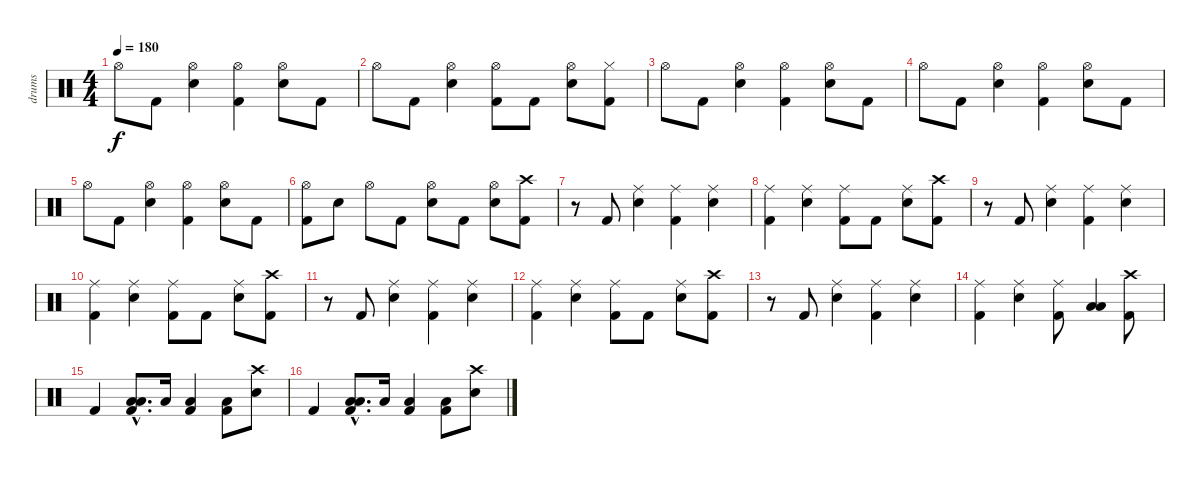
\track ("drums" "drums") {instrument percussion}
\staff {score}
\articulation defaults
\ts (4 4)
\tempo 180
\clef neutral
\ks c "Hi-Hat (open)".8{dy f} "Kick (hit) 2".8
("Hi-Hat (open)" "Electric Snare (hit)").4 ("Hi-Hat (open)" "Kick (hit) 2").4 ("Hi-Hat (open)" "Electric Snare (hit)").8 "Kick (hit) 2".8 |
"Hi-Hat (open)".8 "Kick (hit) 2".8 ("Hi-Hat (open)" "Electric Snare (hit)").4 ("Hi-Hat (open)" "Kick (hit) 2").8 "Kick (hit) 2".8 ("Hi-Hat (open)" "Electric Snare (hit)").8 ("Hi-Hat (closed)" "Kick (hit) 2").8 |
"Hi-Hat (open)".8 "Kick (hit) 2".8 ("Hi-Hat (open)" "Electric Snare (hit)").4 ("Hi-Hat (open)" "Kick (hit) 2").4 ("Hi-Hat (open)" "Electric Snare (hit)").8 "Kick (hit) 2".8 |
"Hi-Hat (open)".8 "Kick (hit) 2".8 ("Hi-Hat (open)" "Electric Snare (hit)").4 ("Hi-Hat (open)" "Kick (hit) 2").4 ("Hi-Hat (open)" "Electric Snare (hit)").8 "Kick (hit) 2".8 |
"Hi-Hat (open)".8 "Kick (hit) 2".8 ("Hi-Hat (open)" "Electric Snare (hit)").4 ("Hi-Hat (open)" "Kick (hit) 2").4 ("Hi-Hat (open)" "Electric Snare (hit)").8 "Kick (hit) 2".8 |
("Hi-Hat (open)" "Kick (hit) 2").8 "Electric Snare (hit)".8 "Hi-Hat (open)".8 "Kick (hit) 2".8 ("Hi-Hat (open)" "Electric Snare (hit)").8 "Kick (hit) 2".8 ("Hi-Hat (open)" "Electric Snare (hit)").8 ("Crash high (hit)" "Kick (hit) 2").8 |
r.8 "Kick (hit) 2".8 ("Ride (middle)" "Electric Snare (hit)").4 ("Ride (middle)" "Kick (hit) 2").4 ("Ride (middle)" "Electric Snare (hit)").4 |
("Ride (middle)" "Kick (hit) 2").4 ("Ride (middle)" "Electric Snare (hit)").4 ("Ride (middle)" "Kick (hit) 2").8 "Kick (hit) 2".8 ("Ride (middle)" "Electric Snare (hit)").8 ("Crash high (hit)" "Kick (hit) 2").8 |
r.8 "Kick (hit) 2".8 ("Ride (middle)" "Electric Snare (hit)").4 ("Ride (middle)" "Kick (hit) 2").4 ("Ride (middle)" "Electric Snare (hit)").4 |
("Ride (middle)" "Kick (hit) 2").4 ("Ride (middle)" "Electric Snare (hit)").4 ("Ride (middle)" "Kick (hit) 2").8 "Kick (hit) 2".8 ("Ride (middle)" "Electric Snare (hit)").8 ("Crash high (hit)" "Kick (hit) 2").8 |
r.8 "Kick (hit) 2".8 ("Ride (middle)" "Electric Snare (hit)").4 ("Ride (middle)" "Kick (hit) 2").4 ("Ride (middle)" "Electric Snare (hit)").4 |
("Ride (middle)" "Kick (hit) 2").4 ("Ride (middle)" "Electric Snare (hit)").4 ("Ride (middle)" "Kick (hit) 2").8 "Kick (hit) 2".8 ("Ride (middle)" "Electric Snare (hit)").8 ("Crash high (hit)" "Kick (hit) 2").8 |
r.8 "Kick (hit) 2".8 ("Ride (middle)" "Electric Snare (hit)").4 ("Ride (middle)" "Kick (hit) 2").4 ("Ride (middle)" "Electric Snare (hit)").4 |
("Ride (middle)" "Kick (hit) 2").4 ("Ride (middle)" "Electric Snare (hit)").4 ("Ride (middle)" "Kick (hit) 2").8 ("Low Tom (hit)" "Low Floor Tom (hit)").4 ("Crash high (hit)" "Kick (hit) 2").8 |
"Kick (hit) 2".4 ("Low Tom (hit)"{hac} "Low Floor Tom (hit)"{hac} "Kick (hit) 2"{hac}).8{d} "Low Tom (hit)".16 ("Low Floor Tom (hit)" "Kick (hit) 2").4 ("Low Floor Tom (hit)" "Kick (hit) 2").8 ("Crash high (hit)" "Electric Snare (hit)").8 |
"Kick (hit) 2".4 ("Low Tom (hit)"{hac} "Low Floor Tom (hit)"{hac} "Kick (hit) 2"{hac}).8{d} "Low Tom (hit)".16 ("Low Floor Tom (hit)" "Kick (hit) 2").4 ("Low Floor Tom (hit)" "Kick (hit) 2").8 ("Crash high (hit)" "Electric Snare (hit)").8
